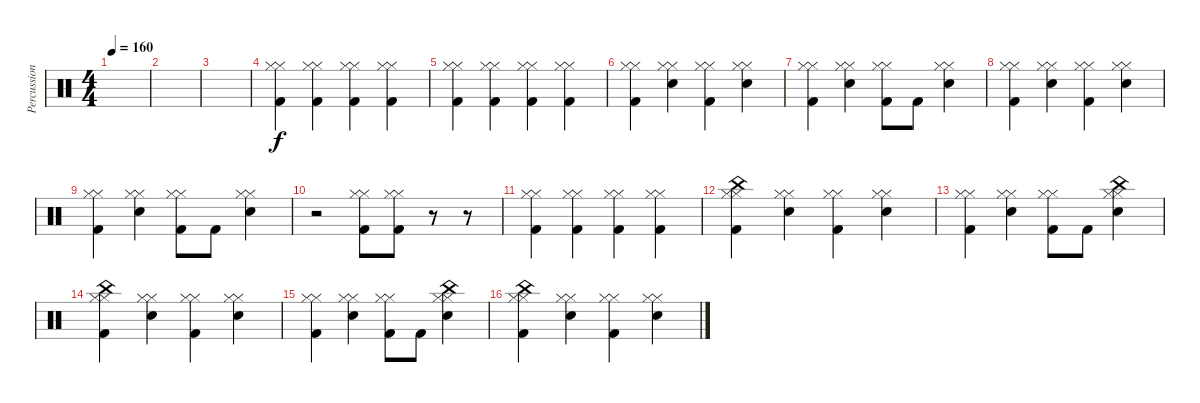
\track ("Percussion" "Percussion") {instrument percussion}
\staff {score}
\articulation defaults
\ts (4 4)
\tempo 160
\clef neutral
\ks c
|
|
|
("Hi-Hat (closed)" "Hi-Hat (closed)" "Kick (hit) 2").4 ("Hi-Hat (closed)" "Hi-Hat (closed)" "Kick (hit) 2").4 ("Hi-Hat (closed)" "Hi-Hat (closed)" "Kick (hit) 2").4 ("Hi-Hat (closed)" "Hi-Hat (closed)" "Kick (hit) 2").4 |
("Hi-Hat (closed)" "Hi-Hat (closed)" "Kick (hit) 2").4 ("Hi-Hat (closed)" "Hi-Hat (closed)" "Kick (hit) 2").4 ("Hi-Hat (closed)" "Hi-Hat (closed)" "Kick (hit) 2").4 ("Hi-Hat (closed)" "Hi-Hat (closed)" "Kick (hit) 2").4 |
("Hi-Hat (closed)" "Hi-Hat (closed)" "Kick (hit) 2").4 ("Hi-Hat (closed)" "Hi-Hat (closed)" "Snare (hit) 2").4 ("Hi-Hat (closed)" "Hi-Hat (closed)" "Kick (hit) 2").4 ("Hi-Hat (closed)" "Hi-Hat (closed)" "Snare (hit) 2").4 |
("Hi-Hat (closed)" "Hi-Hat (closed)" "Kick (hit) 2").4 ("Hi-Hat (closed)" "Hi-Hat (closed)" "Snare (hit) 2").4 ("Hi-Hat (closed)" "Hi-Hat (closed)" "Kick (hit) 2").8 "Kick (hit) 2".8 ("Hi-Hat (closed)" "Hi-Hat (closed)" "Snare (hit) 2").4 |
("Hi-Hat (closed)" "Hi-Hat (closed)" "Kick (hit) 2").4 ("Hi-Hat (closed)" "Hi-Hat (closed)" "Snare (hit) 2").4 ("Hi-Hat (closed)" "Hi-Hat (closed)" "Kick (hit) 2").4 ("Hi-Hat (closed)" "Hi-Hat (closed)" "Snare (hit) 2").4 |
("Hi-Hat (closed)" "Hi-Hat (closed)" "Kick (hit) 2").4 ("Hi-Hat (closed)" "Hi-Hat (closed)" "Snare (hit) 2").4 ("Hi-Hat (closed)" "Hi-Hat (closed)" "Kick (hit) 2").8 "Kick (hit) 2".8 ("Hi-Hat (closed)" "Hi-Hat (closed)" "Snare (hit) 2").4 |
r.2 ("Hi-Hat (closed)" "Hi-Hat (closed)" "Kick (hit) 2").8 ("Hi-Hat (closed)" "Hi-Hat (closed)" "Kick (hit) 2").8 r.8 r.8 |
("Hi-Hat (closed)" "Hi-Hat (closed)" "Kick (hit) 2").4 ("Hi-Hat (closed)" "Hi-Hat (closed)" "Kick (hit) 2").4 ("Hi-Hat (closed)" "Hi-Hat (closed)" "Kick (hit) 2").4 ("Hi-Hat (closed)" "Hi-Hat (closed)" "Kick (hit) 2").4 |
("Hi-Hat (closed)" "Hi-Hat (closed)" "China (hit)" "Kick (hit) 2").4 ("Hi-Hat (closed)" "Hi-Hat (closed)" "Snare (hit) 2").4 ("Hi-Hat (closed)" "Hi-Hat (closed)" "Kick (hit) 2").4 ("Hi-Hat (closed)" "Hi-Hat (closed)" "Snare (hit) 2").4 |
("Hi-Hat (closed)" "Hi-Hat (closed)" "Kick (hit) 2").4 ("Hi-Hat (closed)" "Hi-Hat (closed)" "Snare (hit) 2").4 ("Hi-Hat (closed)" "Hi-Hat (closed)" "Kick (hit) 2").8 "Kick (hit) 2".8 ("Hi-Hat (closed)" "Hi-Hat (closed)" "China (hit)" "Snare (hit) 2").4 |
("Hi-Hat (closed)" "Hi-Hat (closed)" "China (hit)" "Kick (hit) 2").4 ("Hi-Hat (closed)" "Hi-Hat (closed)" "Snare (hit) 2").4 ("Hi-Hat (closed)" "Hi-Hat (closed)" "Kick (hit) 2").4 ("Hi-Hat (closed)" "Hi-Hat (closed)" "Snare (hit) 2").4 |
("Hi-Hat (closed)" "Hi-Hat (closed)" "Kick (hit) 2").4 ("Hi-Hat (closed)" "Hi-Hat (closed)" "Snare (hit) 2").4 ("Hi-Hat (closed)" "Hi-Hat (closed)" "Kick (hit) 2").8 "Kick (hit) 2".8 ("Hi-Hat (closed)" "Hi-Hat (closed)" "China (hit)" "Snare (hit) 2").4 |
("Hi-Hat (closed)" "Hi-Hat (closed)" "China (hit)" "Kick (hit) 2").4 ("Hi-Hat (closed)" "Hi-Hat (closed)" "Snare (hit) 2").4 ("Hi-Hat (closed)" "Hi-Hat (closed)" "Kick (hit) 2").4 ("Hi-Hat (closed)" "Hi-Hat (closed)" "Snare (hit) 2").4
